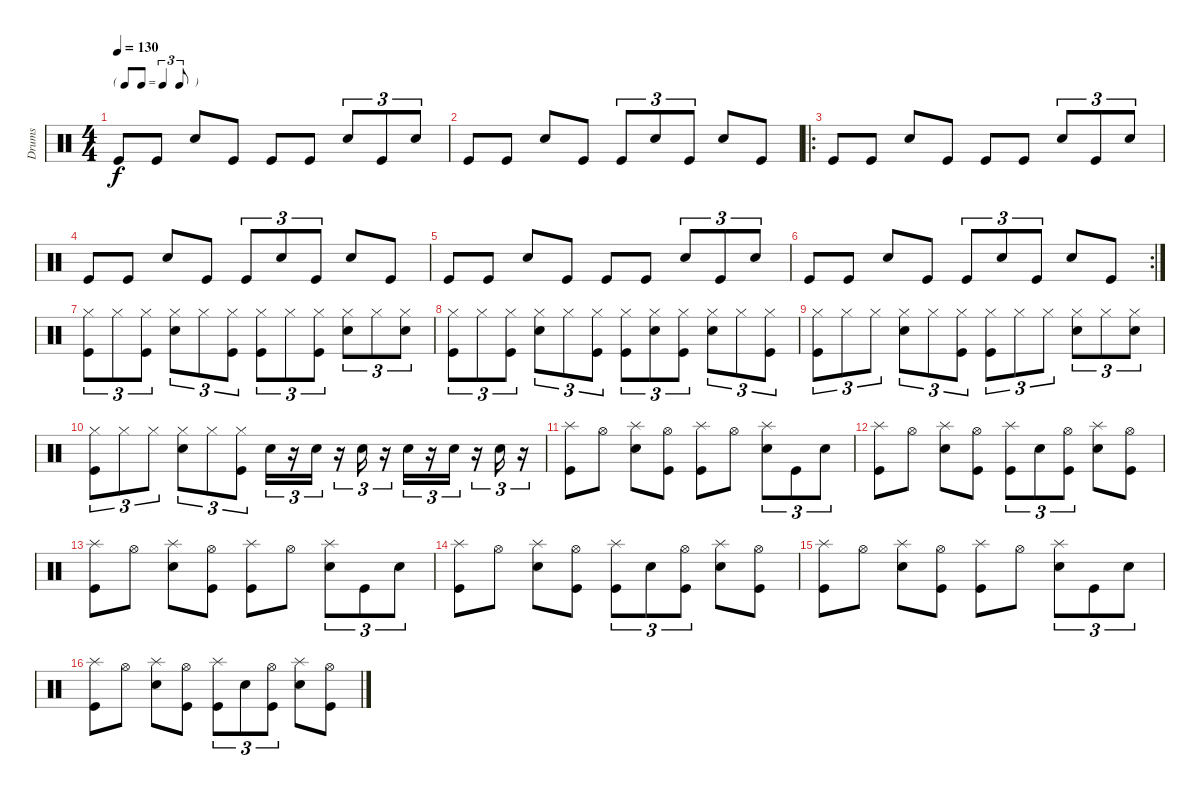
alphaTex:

\track ("Drums" "Drums") {instrument percussion}
\staff {score}
\articulation defaults
\ts (4 4)
\tf triplet8th
\tempo 130
\clef neutral
\ks c "Kick (hit)".8{dy f} "Kick (hit)".8 "Snare (hit) 2".8 "Kick (hit)".8 "Kick (hit)".8 "Kick (hit)".8 "Snare (hit) 2".8{tu (3 2)} "Kick (hit)".8{tu (3 2)} "Snare (hit) 2".8{tu (3 2)}
|
"Kick (hit)".8 "Kick (hit)".8 "Snare (hit) 2".8 "Kick (hit)".8 "Kick (hit)".8{tu (3 2)} "Snare (hit) 2".8{tu (3 2)} "Kick (hit)".8{tu (3 2)} "Snare (hit) 2".8 "Kick (hit)".8 |
\ro "Kick (hit)".8 "Kick (hit)".8 "Snare (hit) 2".8 "Kick (hit)".8 "Kick (hit)".8 "Kick (hit)".8 "Snare (hit) 2".8{tu (3 2)} "Kick (hit)".8{tu (3 2)} "Snare (hit) 2".8{tu (3 2)}
|
"Kick (hit)".8 "Kick (hit)".8 "Snare (hit) 2".8 "Kick (hit)".8 "Kick (hit)".8{tu (3 2)} "Snare (hit) 2".8{tu (3 2)} "Kick (hit)".8{tu (3 2)} "Snare (hit) 2".8 "Kick (hit)".8 |
"Kick (hit)".8 "Kick (hit)".8 "Snare (hit) 2".8 "Kick (hit)".8 "Kick (hit)".8 "Kick (hit)".8 "Snare (hit) 2".8{tu (3 2)} "Kick (hit)".8{tu (3 2)} "Snare (hit) 2".8{tu (3 2)} |
\rc 2 "Kick (hit)".8 "Kick (hit)".8 "Snare (hit) 2".8 "Kick (hit)".8 "Kick (hit)".8{tu (3 2)} "Snare (hit) 2".8{tu (3 2)} "Kick (hit)".8{tu (3 2)} "Snare (hit) 2".8 "Kick (hit)".8
|
("Hi-Hat (closed)" "Kick (hit)").8{tu (3 2)} "Hi-Hat (closed)".8{tu (3 2)} ("Hi-Hat (closed)" "Kick (hit)").8{tu (3 2)} ("Snare (hit) 2" "Hi-Hat (closed)").8{tu (3 2)} "Hi-Hat (closed)".8{tu (3 2)} ("Hi-Hat (closed)" "Kick (hit)").8{tu (3 2)} ("Hi-Hat (closed)" "Kick (hit)").8{tu (3 2)} "Hi-Hat (closed)".8{tu (3 2)} ("Hi-Hat (closed)" "Kick (hit)").8{tu (3 2)} ("Snare (hit) 2" "Hi-Hat (closed)").8{tu (3 2)} "Hi-Hat (closed)".8{tu (3 2)} ("Snare (hit) 2" "Hi-Hat (closed)").8{tu (3 2)} |
("Hi-Hat (closed)" "Kick (hit)").8{tu (3 2)} "Hi-Hat (closed)".8{tu (3 2)} ("Hi-Hat (closed)" "Kick (hit)").8{tu (3 2)} ("Snare (hit) 2" "Hi-Hat (closed)").8{tu (3 2)} "Hi-Hat (closed)".8{tu (3 2)} ("Hi-Hat (closed)" "Kick (hit)").8{tu (3 2)} ("Hi-Hat (closed)" "Kick (hit)").8{tu (3 2)} ("Snare (hit) 2" "Hi-Hat (closed)").8{tu (3 2)} ("Hi-Hat (closed)" "Kick (hit)").8{tu (3 2)} ("Snare (hit) 2" "Hi-Hat (closed)").8{tu (3 2)} "Hi-Hat (closed)".8{tu (3 2)} ("Hi-Hat (closed)" "Kick (hit)").8{tu (3 2)} |
("Hi-Hat (closed)" "Kick (hit)").8{tu (3 2)} "Hi-Hat (closed)".8{tu (3 2)} "Hi-Hat (closed)".8{tu (3 2)} ("Snare (hit) 2" "Hi-Hat (closed)").8{tu (3 2)} "Hi-Hat (closed)".8{tu (3 2)} ("Hi-Hat (closed)" "Kick (hit)").8{tu (3 2)} ("Hi-Hat (closed)" "Kick (hit)").8{tu (3 2)} "Hi-Hat (closed)".8{tu (3 2)} "Hi-Hat (closed)".8{tu (3 2)} ("Snare (hit) 2" "Hi-Hat (closed)").8{tu (3 2)} "Hi-Hat (closed)".8{tu (3 2)} ("Snare (hit) 2" "Hi-Hat (closed)").8{tu (3 2)} |
("Hi-Hat (closed)" "Kick (hit)").8{tu (3 2)} "Hi-Hat (closed)".8{tu (3 2)} "Hi-Hat (closed)".8{tu (3 2)} ("Snare (hit) 2" "Hi-Hat (closed)").8{tu (3 2)} "Hi-Hat (closed)".8{tu (3 2)} ("Hi-Hat (closed)" "Kick (hit)").8{tu (3 2)} "Electric Snare (hit)".16{tu (3 2)} r.16{tu (3 2)} "Electric Snare (hit)".16{tu (3 2)} r.16{tu (3 2)} "Electric Snare (hit)".16{tu (3 2)} r.16{tu (3 2)} "Electric Snare (hit)".16{tu (3 2)} r.16{tu (3 2)} "Electric Snare (hit)".16{tu (3 2)} r.16{tu (3 2)} "Electric Snare (hit)".16{tu (3 2)} r.16{tu (3 2)} |
("Splash (hit)" "Kick (hit)").8 "Hi-Hat (open)".8 ("Splash (hit)" "Electric Snare (hit)").8 ("Hi-Hat (open)" "Kick (hit)").8 ("Splash (hit)" "Kick (hit)").8 "Hi-Hat (open)".8 ("Splash (hit)" "Electric Snare (hit)").8{tu (3 2)} "Kick (hit)".8{tu (3 2)} "Electric Snare (hit)".8{tu (3 2)} |
("Splash (hit)" "Kick (hit)").8 "Hi-Hat (open)".8 ("Splash (hit)" "Electric Snare (hit)").8 ("Hi-Hat (open)" "Kick (hit)").8 ("Splash (hit)" "Kick (hit)").8{tu (3 2)} "Electric Snare (hit)".8{tu (3 2)} ("Hi-Hat (open)" "Kick (hit)").8{tu (3 2)} ("Splash (hit)" "Electric Snare (hit)").8 ("Hi-Hat (open)" "Kick (hit)").8 |
("Splash (hit)" "Kick (hit)").8 "Hi-Hat (open)".8 ("Splash (hit)" "Electric Snare (hit)").8 ("Hi-Hat (open)" "Kick (hit)").8 ("Splash (hit)" "Kick (hit)").8 "Hi-Hat (open)".8 ("Splash (hit)" "Electric Snare (hit)").8{tu (3 2)} "Kick (hit)".8{tu (3 2)} "Electric Snare (hit)".8{tu (3 2)} |
("Splash (hit)" "Kick (hit)").8 "Hi-Hat (open)".8 ("Splash (hit)" "Electric Snare (hit)").8 ("Hi-Hat (open)" "Kick (hit)").8 ("Splash (hit)" "Kick (hit)").8{tu (3 2)} "Electric Snare (hit)".8{tu (3 2)} ("Hi-Hat (open)" "Kick (hit)").8{tu (3 2)} ("Splash (hit)" "Electric Snare (hit)").8 ("Hi-Hat (open)" "Kick (hit)").8 |
("Splash (hit)" "Kick (hit)").8 "Hi-Hat (open)".8 ("Splash (hit)" "Electric Snare (hit)").8 ("Hi-Hat (open)" "Kick (hit)").8 ("Splash (hit)" "Kick (hit)").8 "Hi-Hat (open)".8 ("Splash (hit)" "Electric Snare (hit)").8{tu (3 2)} "Kick (hit)".8{tu (3 2)} "Electric Snare (hit)".8{tu (3 2)} |
("Splash (hit)" "Kick (hit)").8 "Hi-Hat (open)".8 ("Splash (hit)" "Electric Snare (hit)").8 ("Hi-Hat (open)" "Kick (hit)").8 ("Splash (hit)" "Kick (hit)").8{tu (3 2)} "Electric Snare (hit)".8{tu (3 2)} ("Hi-Hat (open)" "Kick (hit)").8{tu (3 2)} ("Splash (hit)" "Electric Snare (hit)").8 ("Hi-Hat (open)" "Kick (hit)").8
